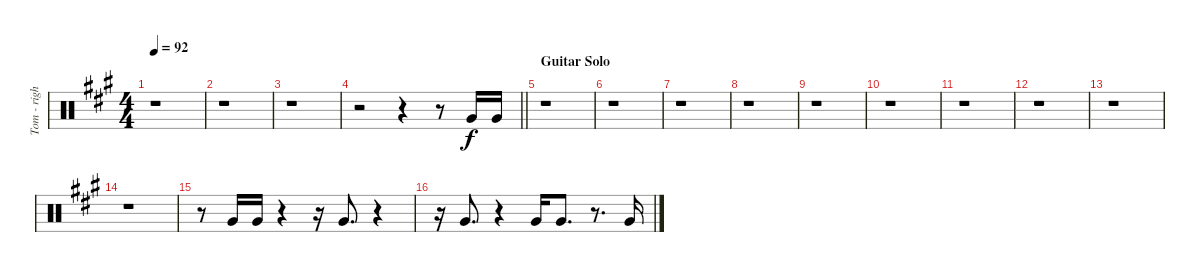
\track ("Tom - right" "Tom - righ") {instrument percussion}
\staff {score}
\articulation defaults
\ts (4 4)
\tempo 92
\clef neutral
\ks f#minor
r.1{dy f} |
r.1 |
r.1 |
\barLineRight lightlight
r.2 r.4 r.8 "Very Low Tom (hit)".16 "Very Low Tom (hit)".16 |
\section ("" "Guitar Solo")
r.1 |
r.1 |
r.1 |
r.1 |
r.1 |
r.1 |
r.1 |
r.1 |
r.1 |
r.1 |
r.8{volume 10} "Very Low Tom (hit)".16 "Very Low Tom (hit)".16 r.4 r.16 "Very Low Tom (hit)".8{d} r.4 |
r.16 "Very Low Tom (hit)".8{d} r.4 "Very Low Tom (hit)".16 "Very Low Tom (hit)".8{d} r.8{d} "Very Low Tom (hit)".16
